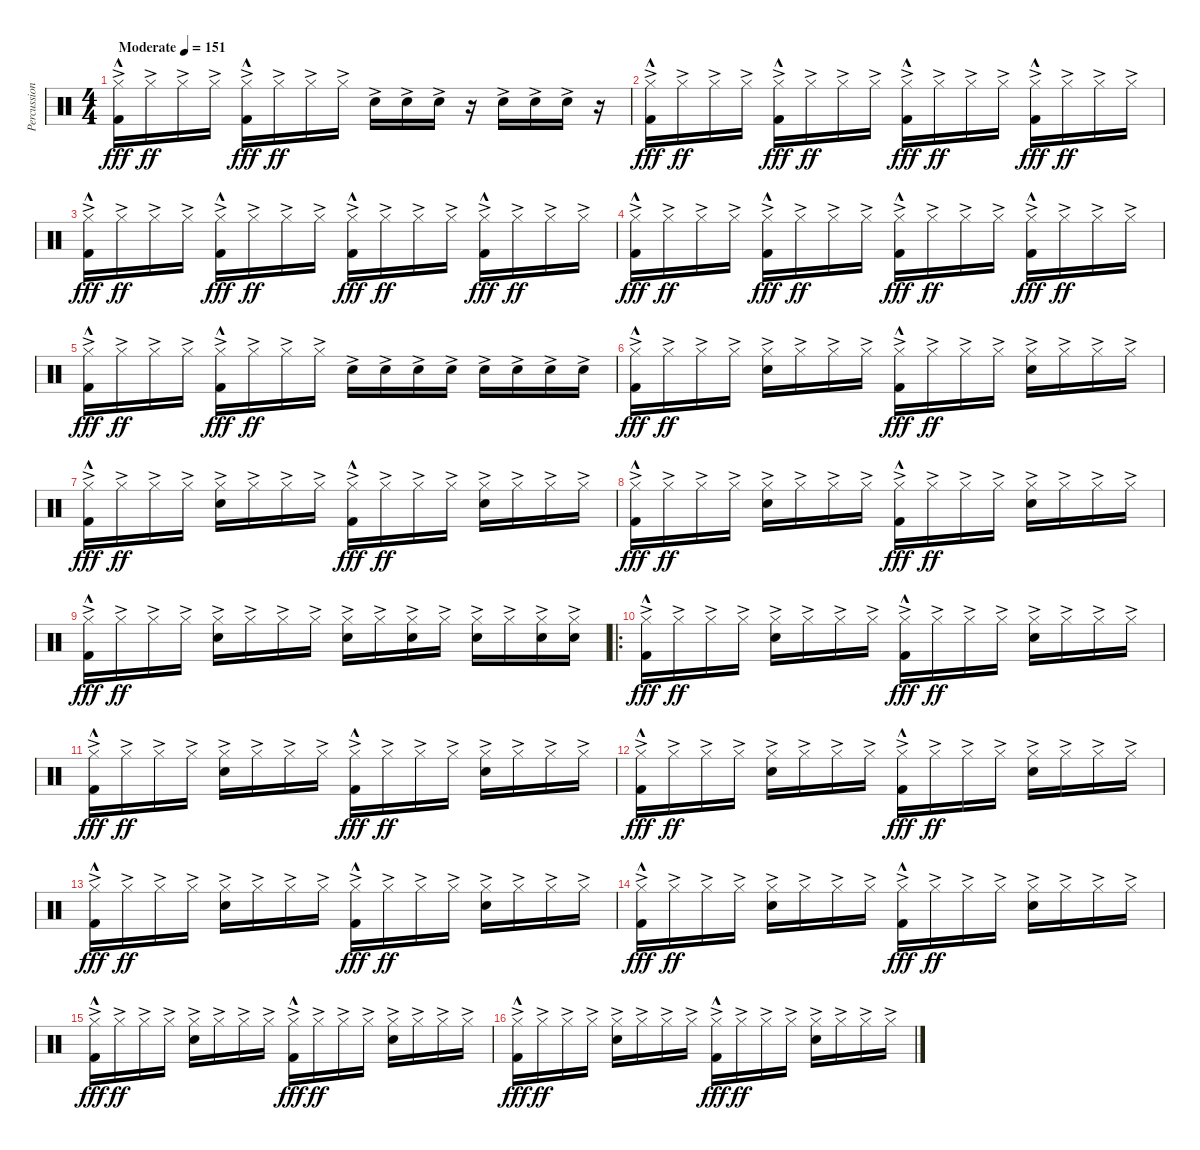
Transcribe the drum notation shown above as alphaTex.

\track ("Percussion" "Percussion") {instrument percussion}
\staff {score}
\articulation defaults
\ts (4 4)
\tempo (151 "Moderate")
\clef neutral
\ks c
("Hi-Hat (closed)"{ac} "Kick (hit) 2"{hac}).16{dy fff} "Hi-Hat (closed)"{ac}.16{dy ff} "Hi-Hat (closed)"{ac}.16 "Hi-Hat (closed)"{ac}.16 ("Hi-Hat (closed)"{ac} "Kick (hit) 2"{hac}).16{dy fff} "Hi-Hat (closed)"{ac}.16{dy ff} "Hi-Hat (closed)"{ac}.16 "Hi-Hat (closed)"{ac}.16 "Snare (hit) 2"{ac}.16 "Snare (hit) 2"{ac}.16 "Snare (hit) 2"{ac}.16 r.16 "Snare (hit) 2"{ac}.16 "Snare (hit) 2"{ac}.16 "Snare (hit) 2"{ac}.16 r.16 |
("Hi-Hat (closed)"{ac} "Kick (hit) 2"{hac}).16{dy fff} "Hi-Hat (closed)"{ac}.16{dy ff} "Hi-Hat (closed)"{ac}.16 "Hi-Hat (closed)"{ac}.16 ("Hi-Hat (closed)"{ac} "Kick (hit) 2"{hac}).16{dy fff} "Hi-Hat (closed)"{ac}.16{dy ff} "Hi-Hat (closed)"{ac}.16 "Hi-Hat (closed)"{ac}.16 ("Hi-Hat (closed)"{ac} "Kick (hit) 2"{hac}).16{dy fff} "Hi-Hat (closed)"{ac}.16{dy ff} "Hi-Hat (closed)"{ac}.16 "Hi-Hat (closed)"{ac}.16 ("Hi-Hat (closed)"{ac} "Kick (hit) 2"{hac}).16{dy fff} "Hi-Hat (closed)"{ac}.16{dy ff} "Hi-Hat (closed)"{ac}.16 "Hi-Hat (closed)"{ac}.16 |
("Hi-Hat (closed)"{ac} "Kick (hit) 2"{hac}).16{dy fff} "Hi-Hat (closed)"{ac}.16{dy ff} "Hi-Hat (closed)"{ac}.16 "Hi-Hat (closed)"{ac}.16 ("Hi-Hat (closed)"{ac} "Kick (hit) 2"{hac}).16{dy fff} "Hi-Hat (closed)"{ac}.16{dy ff} "Hi-Hat (closed)"{ac}.16 "Hi-Hat (closed)"{ac}.16 ("Hi-Hat (closed)"{ac} "Kick (hit) 2"{hac}).16{dy fff} "Hi-Hat (closed)"{ac}.16{dy ff} "Hi-Hat (closed)"{ac}.16 "Hi-Hat (closed)"{ac}.16 ("Hi-Hat (closed)"{ac} "Kick (hit) 2"{hac}).16{dy fff} "Hi-Hat (closed)"{ac}.16{dy ff} "Hi-Hat (closed)"{ac}.16 "Hi-Hat (closed)"{ac}.16 |
("Hi-Hat (closed)"{ac} "Kick (hit) 2"{hac}).16{dy fff} "Hi-Hat (closed)"{ac}.16{dy ff} "Hi-Hat (closed)"{ac}.16 "Hi-Hat (closed)"{ac}.16 ("Hi-Hat (closed)"{ac} "Kick (hit) 2"{hac}).16{dy fff} "Hi-Hat (closed)"{ac}.16{dy ff} "Hi-Hat (closed)"{ac}.16 "Hi-Hat (closed)"{ac}.16 ("Hi-Hat (closed)"{ac} "Kick (hit) 2"{hac}).16{dy fff} "Hi-Hat (closed)"{ac}.16{dy ff} "Hi-Hat (closed)"{ac}.16 "Hi-Hat (closed)"{ac}.16 ("Hi-Hat (closed)"{ac} "Kick (hit) 2"{hac}).16{dy fff} "Hi-Hat (closed)"{ac}.16{dy ff} "Hi-Hat (closed)"{ac}.16 "Hi-Hat (closed)"{ac}.16 |
("Hi-Hat (closed)"{ac} "Kick (hit) 2"{hac}).16{dy fff} "Hi-Hat (closed)"{ac}.16{dy ff} "Hi-Hat (closed)"{ac}.16 "Hi-Hat (closed)"{ac}.16 ("Hi-Hat (closed)"{ac} "Kick (hit) 2"{hac}).16{dy fff} "Hi-Hat (closed)"{ac}.16{dy ff} "Hi-Hat (closed)"{ac}.16 "Hi-Hat (closed)"{ac}.16 "Snare (hit) 2"{ac}.16 "Snare (hit) 2"{ac}.16 "Snare (hit) 2"{ac}.16 "Snare (hit) 2"{ac}.16 "Snare (hit) 2"{ac}.16 "Snare (hit) 2"{ac}.16 "Snare (hit) 2"{ac}.16 "Snare (hit) 2"{ac}.16 |
("Hi-Hat (closed)"{ac} "Kick (hit) 2"{hac}).16{dy fff} "Hi-Hat (closed)"{ac}.16{dy ff} "Hi-Hat (closed)"{ac}.16 "Hi-Hat (closed)"{ac}.16 ("Hi-Hat (closed)"{ac} "Snare (hit) 2"{ac}).16 "Hi-Hat (closed)"{ac}.16 "Hi-Hat (closed)"{ac}.16 "Hi-Hat (closed)"{ac}.16 ("Hi-Hat (closed)"{ac} "Kick (hit) 2"{hac}).16{dy fff} "Hi-Hat (closed)"{ac}.16{dy ff} "Hi-Hat (closed)"{ac}.16 "Hi-Hat (closed)"{ac}.16 ("Hi-Hat (closed)"{ac} "Snare (hit) 2"{ac}).16 "Hi-Hat (closed)"{ac}.16 "Hi-Hat (closed)"{ac}.16 "Hi-Hat (closed)"{ac}.16 |
("Hi-Hat (closed)"{ac} "Kick (hit) 2"{hac}).16{dy fff} "Hi-Hat (closed)"{ac}.16{dy ff} "Hi-Hat (closed)"{ac}.16 "Hi-Hat (closed)"{ac}.16 ("Hi-Hat (closed)"{ac} "Snare (hit) 2"{ac}).16 "Hi-Hat (closed)"{ac}.16 "Hi-Hat (closed)"{ac}.16 "Hi-Hat (closed)"{ac}.16 ("Hi-Hat (closed)"{ac} "Kick (hit) 2"{hac}).16{dy fff} "Hi-Hat (closed)"{ac}.16{dy ff} "Hi-Hat (closed)"{ac}.16 "Hi-Hat (closed)"{ac}.16 ("Hi-Hat (closed)"{ac} "Snare (hit) 2"{ac}).16 "Hi-Hat (closed)"{ac}.16 "Hi-Hat (closed)"{ac}.16 "Hi-Hat (closed)"{ac}.16 |
("Hi-Hat (closed)"{ac} "Kick (hit) 2"{hac}).16{dy fff} "Hi-Hat (closed)"{ac}.16{dy ff} "Hi-Hat (closed)"{ac}.16 "Hi-Hat (closed)"{ac}.16 ("Hi-Hat (closed)"{ac} "Snare (hit) 2"{ac}).16 "Hi-Hat (closed)"{ac}.16 "Hi-Hat (closed)"{ac}.16 "Hi-Hat (closed)"{ac}.16 ("Hi-Hat (closed)"{ac} "Kick (hit) 2"{hac}).16{dy fff} "Hi-Hat (closed)"{ac}.16{dy ff} "Hi-Hat (closed)"{ac}.16 "Hi-Hat (closed)"{ac}.16 ("Hi-Hat (closed)"{ac} "Snare (hit) 2"{ac}).16 "Hi-Hat (closed)"{ac}.16 "Hi-Hat (closed)"{ac}.16 "Hi-Hat (closed)"{ac}.16 |
("Hi-Hat (closed)"{ac} "Kick (hit) 2"{hac}).16{dy fff} "Hi-Hat (closed)"{ac}.16{dy ff} "Hi-Hat (closed)"{ac}.16 "Hi-Hat (closed)"{ac}.16 ("Hi-Hat (closed)"{ac} "Snare (hit) 2"{ac}).16 "Hi-Hat (closed)"{ac}.16 "Hi-Hat (closed)"{ac}.16 "Hi-Hat (closed)"{ac}.16 ("Hi-Hat (closed)"{ac} "Snare (hit) 2"{ac}).16 "Hi-Hat (closed)"{ac}.16 ("Hi-Hat (closed)"{ac} "Snare (hit) 2"{ac}).16 "Hi-Hat (closed)"{ac}.16 ("Hi-Hat (closed)"{ac} "Snare (hit) 2"{ac}).16 "Hi-Hat (closed)"{ac}.16 ("Hi-Hat (closed)"{ac} "Snare (hit) 2"{ac}).16 ("Hi-Hat (closed)"{ac} "Snare (hit) 2"{ac}).16 |
\ro
("Hi-Hat (closed)"{ac} "Kick (hit) 2"{hac}).16{dy fff} "Hi-Hat (closed)"{ac}.16{dy ff} "Hi-Hat (closed)"{ac}.16 "Hi-Hat (closed)"{ac}.16 ("Hi-Hat (closed)"{ac} "Snare (hit) 2"{ac}).16 "Hi-Hat (closed)"{ac}.16 "Hi-Hat (closed)"{ac}.16 "Hi-Hat (closed)"{ac}.16 ("Hi-Hat (closed)"{ac} "Kick (hit) 2"{hac}).16{dy fff} "Hi-Hat (closed)"{ac}.16{dy ff} "Hi-Hat (closed)"{ac}.16 "Hi-Hat (closed)"{ac}.16 ("Hi-Hat (closed)"{ac} "Snare (hit) 2"{ac}).16 "Hi-Hat (closed)"{ac}.16 "Hi-Hat (closed)"{ac}.16 "Hi-Hat (closed)"{ac}.16 |
("Hi-Hat (closed)"{ac} "Kick (hit) 2"{hac}).16{dy fff} "Hi-Hat (closed)"{ac}.16{dy ff} "Hi-Hat (closed)"{ac}.16 "Hi-Hat (closed)"{ac}.16 ("Hi-Hat (closed)"{ac} "Snare (hit) 2"{ac}).16 "Hi-Hat (closed)"{ac}.16 "Hi-Hat (closed)"{ac}.16 "Hi-Hat (closed)"{ac}.16 ("Hi-Hat (closed)"{ac} "Kick (hit) 2"{hac}).16{dy fff} "Hi-Hat (closed)"{ac}.16{dy ff} "Hi-Hat (closed)"{ac}.16 "Hi-Hat (closed)"{ac}.16 ("Hi-Hat (closed)"{ac} "Snare (hit) 2"{ac}).16 "Hi-Hat (closed)"{ac}.16 "Hi-Hat (closed)"{ac}.16 "Hi-Hat (closed)"{ac}.16 |
("Hi-Hat (closed)"{ac} "Kick (hit) 2"{hac}).16{dy fff} "Hi-Hat (closed)"{ac}.16{dy ff} "Hi-Hat (closed)"{ac}.16 "Hi-Hat (closed)"{ac}.16 ("Hi-Hat (closed)"{ac} "Snare (hit) 2"{ac}).16 "Hi-Hat (closed)"{ac}.16 "Hi-Hat (closed)"{ac}.16 "Hi-Hat (closed)"{ac}.16 ("Hi-Hat (closed)"{ac} "Kick (hit) 2"{hac}).16{dy fff} "Hi-Hat (closed)"{ac}.16{dy ff} "Hi-Hat (closed)"{ac}.16 "Hi-Hat (closed)"{ac}.16 ("Hi-Hat (closed)"{ac} "Snare (hit) 2"{ac}).16 "Hi-Hat (closed)"{ac}.16 "Hi-Hat (closed)"{ac}.16 "Hi-Hat (closed)"{ac}.16 |
("Hi-Hat (closed)"{ac} "Kick (hit) 2"{hac}).16{dy fff} "Hi-Hat (closed)"{ac}.16{dy ff} "Hi-Hat (closed)"{ac}.16 "Hi-Hat (closed)"{ac}.16 ("Hi-Hat (closed)"{ac} "Snare (hit) 2"{ac}).16 "Hi-Hat (closed)"{ac}.16 "Hi-Hat (closed)"{ac}.16 "Hi-Hat (closed)"{ac}.16 ("Hi-Hat (closed)"{ac} "Kick (hit) 2"{hac}).16{dy fff} "Hi-Hat (closed)"{ac}.16{dy ff} "Hi-Hat (closed)"{ac}.16 "Hi-Hat (closed)"{ac}.16 ("Hi-Hat (closed)"{ac} "Snare (hit) 2"{ac}).16 "Hi-Hat (closed)"{ac}.16 "Hi-Hat (closed)"{ac}.16 "Hi-Hat (closed)"{ac}.16 |
("Hi-Hat (closed)"{ac} "Kick (hit) 2"{hac}).16{dy fff} "Hi-Hat (closed)"{ac}.16{dy ff} "Hi-Hat (closed)"{ac}.16 "Hi-Hat (closed)"{ac}.16 ("Hi-Hat (closed)"{ac} "Snare (hit) 2"{ac}).16 "Hi-Hat (closed)"{ac}.16 "Hi-Hat (closed)"{ac}.16 "Hi-Hat (closed)"{ac}.16 ("Hi-Hat (closed)"{ac} "Kick (hit) 2"{hac}).16{dy fff} "Hi-Hat (closed)"{ac}.16{dy ff} "Hi-Hat (closed)"{ac}.16 "Hi-Hat (closed)"{ac}.16 ("Hi-Hat (closed)"{ac} "Snare (hit) 2"{ac}).16 "Hi-Hat (closed)"{ac}.16 "Hi-Hat (closed)"{ac}.16 "Hi-Hat (closed)"{ac}.16 |
("Hi-Hat (closed)"{ac} "Kick (hit) 2"{hac}).16{dy fff} "Hi-Hat (closed)"{ac}.16{dy ff} "Hi-Hat (closed)"{ac}.16 "Hi-Hat (closed)"{ac}.16 ("Hi-Hat (closed)"{ac} "Snare (hit) 2"{ac}).16 "Hi-Hat (closed)"{ac}.16 "Hi-Hat (closed)"{ac}.16 "Hi-Hat (closed)"{ac}.16 ("Hi-Hat (closed)"{ac} "Kick (hit) 2"{hac}).16{dy fff} "Hi-Hat (closed)"{ac}.16{dy ff} "Hi-Hat (closed)"{ac}.16 "Hi-Hat (closed)"{ac}.16 ("Hi-Hat (closed)"{ac} "Snare (hit) 2"{ac}).16 "Hi-Hat (closed)"{ac}.16 "Hi-Hat (closed)"{ac}.16 "Hi-Hat (closed)"{ac}.16 |
("Hi-Hat (closed)"{ac} "Kick (hit) 2"{hac}).16{dy fff} "Hi-Hat (closed)"{ac}.16{dy ff} "Hi-Hat (closed)"{ac}.16 "Hi-Hat (closed)"{ac}.16 ("Hi-Hat (closed)"{ac} "Snare (hit) 2"{ac}).16 "Hi-Hat (closed)"{ac}.16 "Hi-Hat (closed)"{ac}.16 "Hi-Hat (closed)"{ac}.16 ("Hi-Hat (closed)"{ac} "Kick (hit) 2"{hac}).16{dy fff} "Hi-Hat (closed)"{ac}.16{dy ff} "Hi-Hat (closed)"{ac}.16 "Hi-Hat (closed)"{ac}.16 ("Hi-Hat (closed)"{ac} "Snare (hit) 2"{ac}).16 "Hi-Hat (closed)"{ac}.16 "Hi-Hat (closed)"{ac}.16 "Hi-Hat (closed)"{ac}.16
